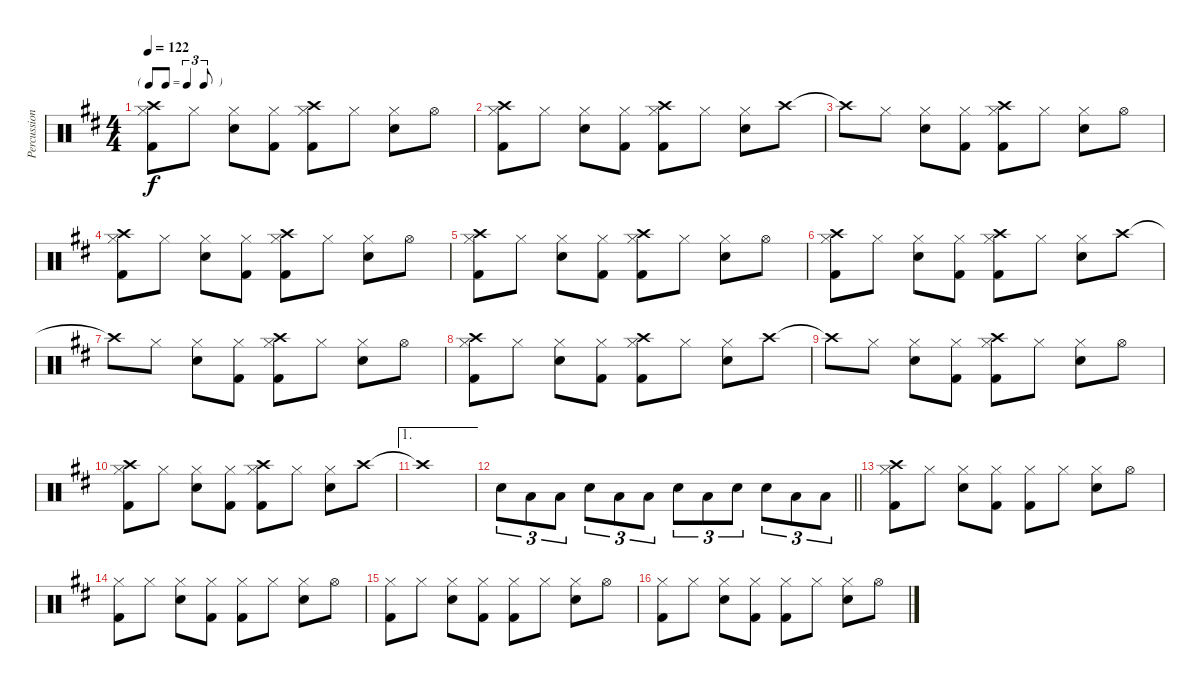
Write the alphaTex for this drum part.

\track ("Percussioni" "Percussion") {instrument percussion}
\staff {score}
\articulation defaults
\ts (4 4)
\tf triplet8th
\tempo 122
\clef neutral
\ks d
("Hi-Hat (closed)" "Kick (hit) 2" "Crash high (hit)").8{dy f} "Hi-Hat (closed)".8 ("Hi-Hat (closed)" "Electric Snare (hit)").8 ("Hi-Hat (closed)" "Kick (hit) 2").8 ("Hi-Hat (closed)" "Kick (hit) 2" "Crash high (hit)").8 "Hi-Hat (closed)".8 ("Hi-Hat (closed)" "Electric Snare (hit)").8 "Hi-Hat (open)".8 |
("Hi-Hat (closed)" "Kick (hit) 2" "Crash high (hit)").8 "Hi-Hat (closed)".8 ("Hi-Hat (closed)" "Electric Snare (hit)").8 ("Hi-Hat (closed)" "Kick (hit) 2").8 ("Hi-Hat (closed)" "Kick (hit) 2" "Crash high (hit)").8 "Hi-Hat (closed)".8 ("Hi-Hat (closed)" "Electric Snare (hit)").8 "Crash high (hit)".8 |
"Crash high (hit)"{t}.8 "Hi-Hat (closed)".8 ("Hi-Hat (closed)" "Electric Snare (hit)").8 ("Hi-Hat (closed)" "Kick (hit) 2").8 ("Hi-Hat (closed)" "Kick (hit) 2" "Crash high (hit)").8 "Hi-Hat (closed)".8 ("Hi-Hat (closed)" "Electric Snare (hit)").8 "Hi-Hat (open)".8 |
("Hi-Hat (closed)" "Kick (hit) 2" "Crash high (hit)").8 "Hi-Hat (closed)".8 ("Hi-Hat (closed)" "Electric Snare (hit)").8 ("Hi-Hat (closed)" "Kick (hit) 2").8 ("Hi-Hat (closed)" "Kick (hit) 2" "Crash high (hit)").8 "Hi-Hat (closed)".8 ("Hi-Hat (closed)" "Electric Snare (hit)").8 "Hi-Hat (open)".8 |
("Hi-Hat (closed)" "Kick (hit) 2" "Crash high (hit)").8 "Hi-Hat (closed)".8 ("Hi-Hat (closed)" "Electric Snare (hit)").8 ("Hi-Hat (closed)" "Kick (hit) 2").8 ("Hi-Hat (closed)" "Kick (hit) 2" "Crash high (hit)").8 "Hi-Hat (closed)".8 ("Hi-Hat (closed)" "Electric Snare (hit)").8 "Hi-Hat (open)".8 |
("Hi-Hat (closed)" "Kick (hit) 2" "Crash high (hit)").8 "Hi-Hat (closed)".8 ("Hi-Hat (closed)" "Electric Snare (hit)").8 ("Hi-Hat (closed)" "Kick (hit) 2").8 ("Hi-Hat (closed)" "Kick (hit) 2" "Crash high (hit)").8 "Hi-Hat (closed)".8 ("Hi-Hat (closed)" "Electric Snare (hit)").8 "Crash high (hit)".8 |
"Crash high (hit)"{t}.8 "Hi-Hat (closed)".8 ("Hi-Hat (closed)" "Electric Snare (hit)").8 ("Hi-Hat (closed)" "Kick (hit) 2").8 ("Hi-Hat (closed)" "Kick (hit) 2" "Crash high (hit)").8 "Hi-Hat (closed)".8 ("Hi-Hat (closed)" "Electric Snare (hit)").8 "Hi-Hat (open)".8 |
("Hi-Hat (closed)" "Kick (hit) 2" "Crash high (hit)").8 "Hi-Hat (closed)".8 ("Hi-Hat (closed)" "Electric Snare (hit)").8 ("Hi-Hat (closed)" "Kick (hit) 2").8 ("Hi-Hat (closed)" "Kick (hit) 2" "Crash high (hit)").8 "Hi-Hat (closed)".8 ("Hi-Hat (closed)" "Electric Snare (hit)").8 "Crash high (hit)".8 |
"Crash high (hit)"{t}.8 "Hi-Hat (closed)".8 ("Hi-Hat (closed)" "Electric Snare (hit)").8 ("Hi-Hat (closed)" "Kick (hit) 2").8 ("Hi-Hat (closed)" "Kick (hit) 2" "Crash high (hit)").8 "Hi-Hat (closed)".8 ("Hi-Hat (closed)" "Electric Snare (hit)").8 "Hi-Hat (open)".8 |
("Hi-Hat (closed)" "Kick (hit) 2" "Crash high (hit)").8 "Hi-Hat (closed)".8 ("Hi-Hat (closed)" "Electric Snare (hit)").8 ("Hi-Hat (closed)" "Kick (hit) 2").8 ("Hi-Hat (closed)" "Kick (hit) 2" "Crash high (hit)").8 "Hi-Hat (closed)".8 ("Hi-Hat (closed)" "Electric Snare (hit)").8 "Crash high (hit)".8 |
\ae 1 "Crash high (hit)"{t}.1
|
\barLineRight lightlight "Electric Snare (hit)".8{tu (3 2)} "Low Tom (hit)".8{tu (3 2)} "Low Tom (hit)".8{tu (3 2)} "Electric Snare (hit)".8{tu (3 2)} "Low Tom (hit)".8{tu (3 2)} "Low Tom (hit)".8{tu (3 2)} "Electric Snare (hit)".8{tu (3 2)} "Low Tom (hit)".8{tu (3 2)} "Electric Snare (hit)".8{tu (3 2)} "Electric Snare (hit)".8{tu (3 2)} "Low Tom (hit)".8{tu (3 2)} "Low Tom (hit)".8{tu (3 2)}
|
("Hi-Hat (closed)" "Kick (hit) 2" "Crash high (hit)").8 "Hi-Hat (closed)".8 ("Hi-Hat (closed)" "Electric Snare (hit)").8 ("Hi-Hat (closed)" "Kick (hit) 2").8 ("Hi-Hat (closed)" "Kick (hit) 2").8 "Hi-Hat (closed)".8 ("Hi-Hat (closed)" "Electric Snare (hit)").8 "Hi-Hat (open)".8 |
("Hi-Hat (closed)" "Kick (hit) 2").8 "Hi-Hat (closed)".8 ("Hi-Hat (closed)" "Electric Snare (hit)").8 ("Hi-Hat (closed)" "Kick (hit) 2").8 ("Hi-Hat (closed)" "Kick (hit) 2").8 "Hi-Hat (closed)".8 ("Hi-Hat (closed)" "Electric Snare (hit)").8 "Hi-Hat (open)".8 |
("Hi-Hat (closed)" "Kick (hit) 2").8 "Hi-Hat (closed)".8 ("Hi-Hat (closed)" "Electric Snare (hit)").8 ("Hi-Hat (closed)" "Kick (hit) 2").8 ("Hi-Hat (closed)" "Kick (hit) 2").8 "Hi-Hat (closed)".8 ("Hi-Hat (closed)" "Electric Snare (hit)").8 "Hi-Hat (open)".8 |
("Hi-Hat (closed)" "Kick (hit) 2").8 "Hi-Hat (closed)".8 ("Hi-Hat (closed)" "Electric Snare (hit)").8 ("Hi-Hat (closed)" "Kick (hit) 2").8 ("Hi-Hat (closed)" "Kick (hit) 2").8 "Hi-Hat (closed)".8 ("Hi-Hat (closed)" "Electric Snare (hit)").8 "Hi-Hat (open)".8
